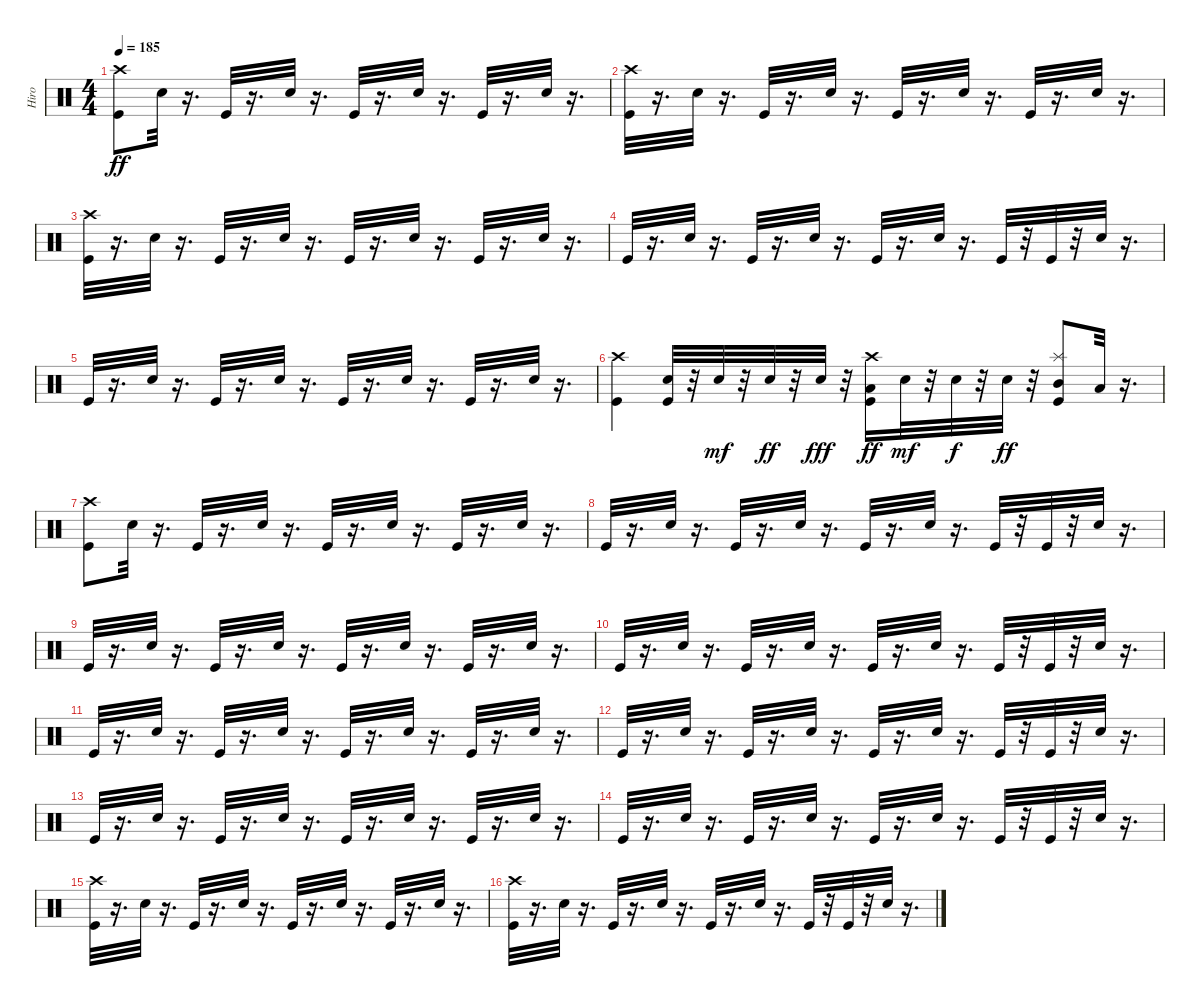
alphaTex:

\track ("Hiro" "Hiro") {instrument percussion}
\staff {score}
\articulation defaults
\ts (4 4)
\tempo 185
\clef neutral
\ks c
("Crash high (hit)" "Kick (hit)").8{dy ff} "Electric Snare (hit)".32 r.16{d} "Kick (hit)".32 r.16{d} "Electric Snare (hit)".32 r.16{d} "Kick (hit)".32 r.16{d} "Electric Snare (hit)".32 r.16{d} "Kick (hit)".32 r.16{d} "Electric Snare (hit)".32 r.16{d} |
("Crash high (hit)" "Kick (hit)").32 r.16{d} "Electric Snare (hit)".32 r.16{d} "Kick (hit)".32 r.16{d} "Electric Snare (hit)".32 r.16{d} "Kick (hit)".32 r.16{d} "Electric Snare (hit)".32 r.16{d} "Kick (hit)".32 r.16{d} "Electric Snare (hit)".32 r.16{d} |
("Crash high (hit)" "Kick (hit)").32 r.16{d} "Electric Snare (hit)".32 r.16{d} "Kick (hit)".32 r.16{d} "Electric Snare (hit)".32 r.16{d} "Kick (hit)".32 r.16{d} "Electric Snare (hit)".32 r.16{d} "Kick (hit)".32 r.16{d} "Electric Snare (hit)".32 r.16{d} |
"Kick (hit)".32 r.16{d} "Electric Snare (hit)".32 r.16{d} "Kick (hit)".32 r.16{d} "Electric Snare (hit)".32 r.16{d} "Kick (hit)".32 r.16{d} "Electric Snare (hit)".32 r.16{d} "Kick (hit)".32 r.32 "Kick (hit)".32 r.32 "Electric Snare (hit)".32 r.16{d} |
"Kick (hit)".32 r.16{d} "Electric Snare (hit)".32 r.16{d} "Kick (hit)".32 r.16{d} "Electric Snare (hit)".32 r.16{d} "Kick (hit)".32 r.16{d} "Electric Snare (hit)".32 r.16{d} "Kick (hit)".32 r.16{d} "Electric Snare (hit)".32 r.16{d} |
("Crash high (hit)" "Kick (hit)").4 ("Electric Snare (hit)" "Kick (hit)").32 r.32 "Electric Snare (hit)".32{dy mf} r.32 "Electric Snare (hit)".32{dy ff} r.32 "Electric Snare (hit)".32{dy fff} r.32 ("Crash high (hit)" "Low Tom (hit)" "Kick (hit)").16{dy ff} "Electric Snare (hit)".32{dy mf} r.32 "Electric Snare (hit)".32{dy f} r.32 "Electric Snare (hit)".32{dy ff} r.32 ("Splash (hit)" "Mid Tom (hit)" "Kick (hit)").8 "Low Tom (hit)".32 r.16{d} |
("Crash high (hit)" "Kick (hit)").8 "Electric Snare (hit)".32 r.16{d} "Kick (hit)".32 r.16{d} "Electric Snare (hit)".32 r.16{d} "Kick (hit)".32 r.16{d} "Electric Snare (hit)".32 r.16{d} "Kick (hit)".32 r.16{d} "Electric Snare (hit)".32 r.16{d} |
"Kick (hit)".32 r.16{d} "Electric Snare (hit)".32 r.16{d} "Kick (hit)".32 r.16{d} "Electric Snare (hit)".32 r.16{d} "Kick (hit)".32 r.16{d} "Electric Snare (hit)".32 r.16{d} "Kick (hit)".32 r.32 "Kick (hit)".32 r.32 "Electric Snare (hit)".32 r.16{d} |
"Kick (hit)".32 r.16{d} "Electric Snare (hit)".32 r.16{d} "Kick (hit)".32 r.16{d} "Electric Snare (hit)".32 r.16{d} "Kick (hit)".32 r.16{d} "Electric Snare (hit)".32 r.16{d} "Kick (hit)".32 r.16{d} "Electric Snare (hit)".32 r.16{d} |
"Kick (hit)".32 r.16{d} "Electric Snare (hit)".32 r.16{d} "Kick (hit)".32 r.16{d} "Electric Snare (hit)".32 r.16{d} "Kick (hit)".32 r.16{d} "Electric Snare (hit)".32 r.16{d} "Kick (hit)".32 r.32 "Kick (hit)".32 r.32 "Electric Snare (hit)".32 r.16{d} |
"Kick (hit)".32 r.16{d} "Electric Snare (hit)".32 r.16{d} "Kick (hit)".32 r.16{d} "Electric Snare (hit)".32 r.16{d} "Kick (hit)".32 r.16{d} "Electric Snare (hit)".32 r.16{d} "Kick (hit)".32 r.16{d} "Electric Snare (hit)".32 r.16{d} |
"Kick (hit)".32 r.16{d} "Electric Snare (hit)".32 r.16{d} "Kick (hit)".32 r.16{d} "Electric Snare (hit)".32 r.16{d} "Kick (hit)".32 r.16{d} "Electric Snare (hit)".32 r.16{d} "Kick (hit)".32 r.32 "Kick (hit)".32 r.32 "Electric Snare (hit)".32 r.16{d} |
"Kick (hit)".32 r.16{d} "Electric Snare (hit)".32 r.16{d} "Kick (hit)".32 r.16{d} "Electric Snare (hit)".32 r.16{d} "Kick (hit)".32 r.16{d} "Electric Snare (hit)".32 r.16{d} "Kick (hit)".32 r.16{d} "Electric Snare (hit)".32 r.16{d} |
"Kick (hit)".32 r.16{d} "Electric Snare (hit)".32 r.16{d} "Kick (hit)".32 r.16{d} "Electric Snare (hit)".32 r.16{d} "Kick (hit)".32 r.16{d} "Electric Snare (hit)".32 r.16{d} "Kick (hit)".32 r.32 "Kick (hit)".32 r.32 "Electric Snare (hit)".32 r.16{d} |
("Crash high (hit)" "Kick (hit)").32 r.16{d} "Electric Snare (hit)".32 r.16{d} "Kick (hit)".32 r.16{d} "Electric Snare (hit)".32 r.16{d} "Kick (hit)".32 r.16{d} "Electric Snare (hit)".32 r.16{d} "Kick (hit)".32 r.16{d} "Electric Snare (hit)".32 r.16{d} |
("Crash high (hit)" "Kick (hit)").32 r.16{d} "Electric Snare (hit)".32 r.16{d} "Kick (hit)".32 r.16{d} "Electric Snare (hit)".32 r.16{d} "Kick (hit)".32 r.16{d} "Electric Snare (hit)".32 r.16{d} "Kick (hit)".32 r.32 "Kick (hit)".32 r.32 "Electric Snare (hit)".32 r.16{d}
